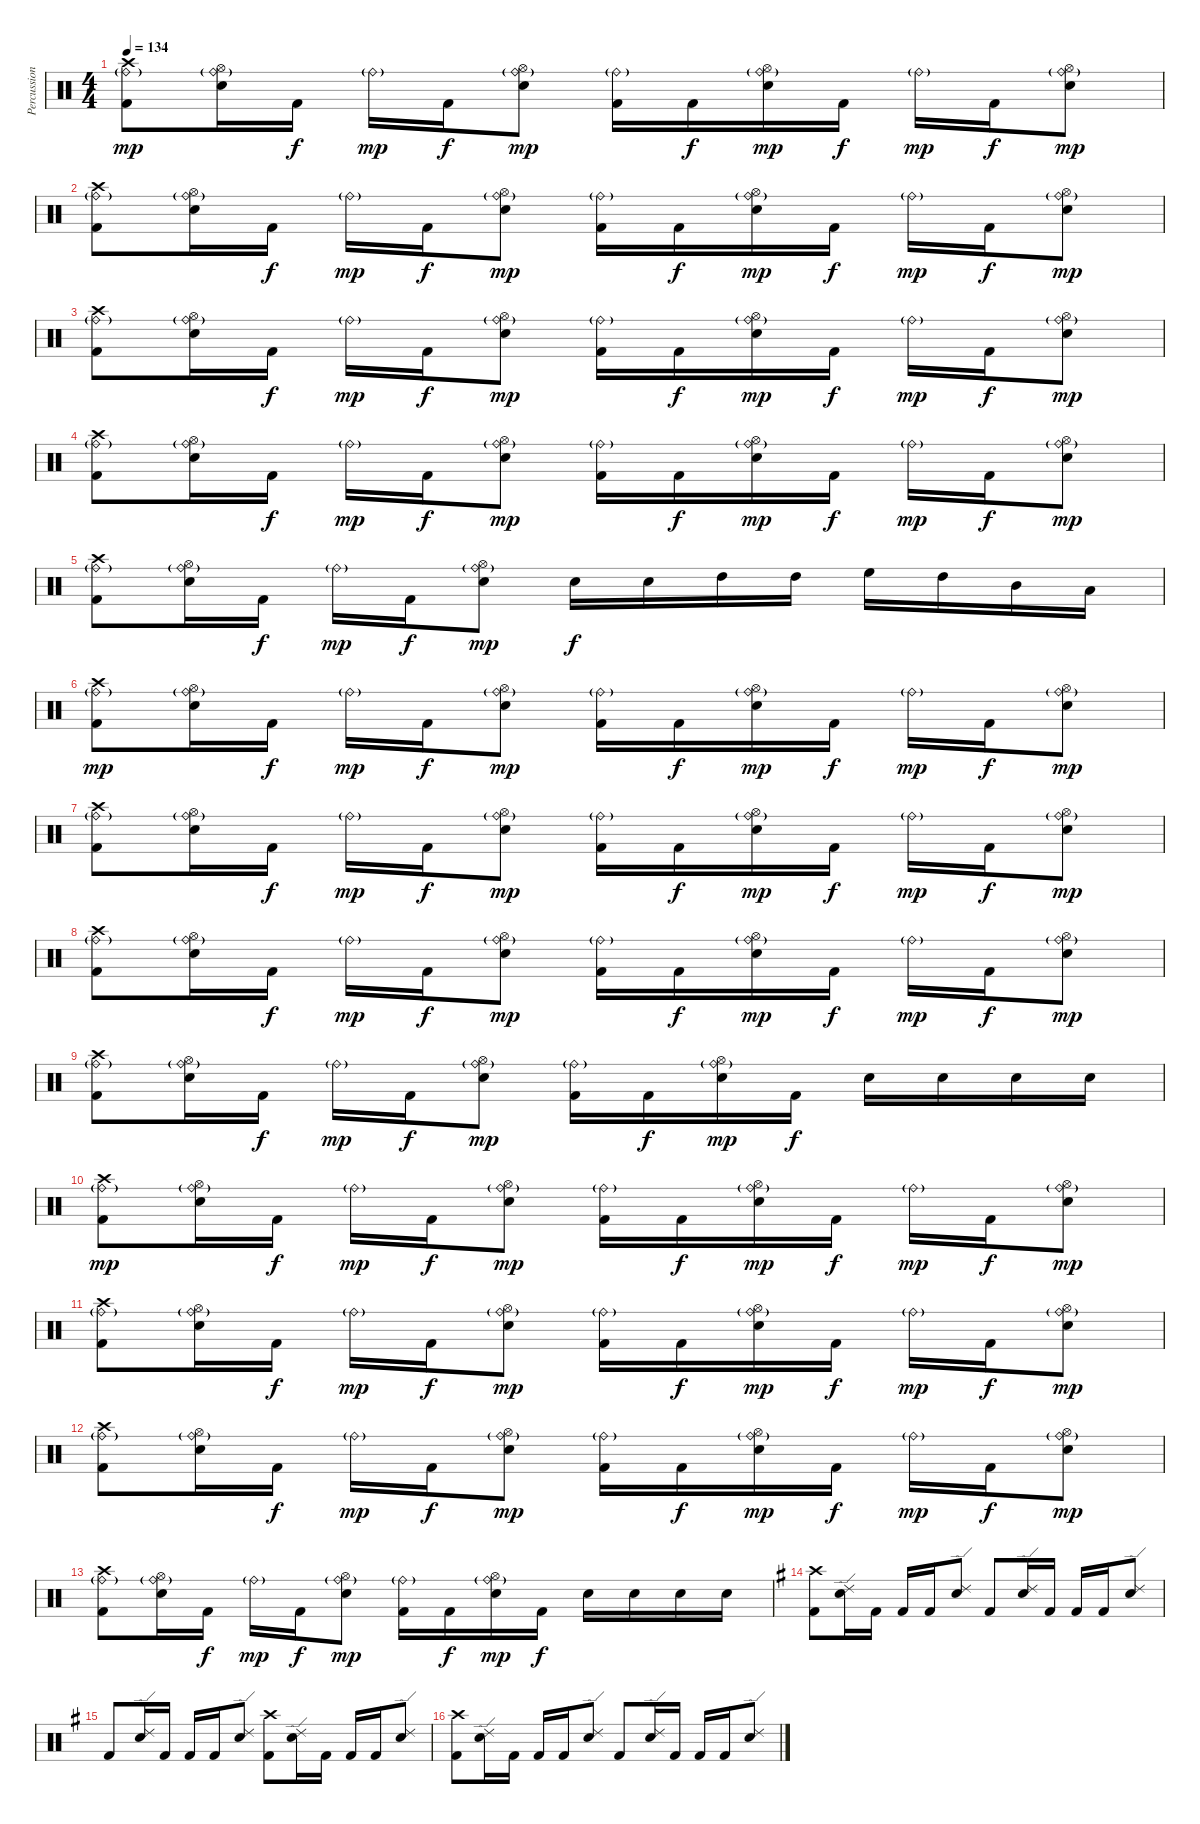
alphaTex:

\track ("Percussion" "Percussion") {instrument percussion}
\staff {score}
\articulation defaults
\ts (4 4)
\tempo 134
\clef neutral
\ks aminor
("Crash high (hit)" "Ride (bell)"{g} "Kick (hit) 2").8{dy mp} ("Hi-Hat (open)" "Ride (bell)"{g} "Electric Snare (hit)").16 "Kick (hit) 2".16{dy f} "Ride (bell)"{g}.16{dy mp} "Kick (hit) 2".16{dy f} ("Hi-Hat (open)" "Ride (bell)"{g} "Electric Snare (hit)").8{dy mp} ("Ride (bell)"{g} "Kick (hit) 2").16 "Kick (hit) 2".16{dy f} ("Hi-Hat (open)" "Ride (bell)"{g} "Electric Snare (hit)").16{dy mp} "Kick (hit) 2".16{dy f} "Ride (bell)"{g}.16{dy mp} "Kick (hit) 2".16{dy f} ("Hi-Hat (open)" "Ride (bell)"{g} "Electric Snare (hit)").8{dy mp} |
("Crash high (hit)" "Ride (bell)"{g} "Kick (hit) 2").8 ("Hi-Hat (open)" "Ride (bell)"{g} "Electric Snare (hit)").16 "Kick (hit) 2".16{dy f} "Ride (bell)"{g}.16{dy mp} "Kick (hit) 2".16{dy f} ("Hi-Hat (open)" "Ride (bell)"{g} "Electric Snare (hit)").8{dy mp} ("Ride (bell)"{g} "Kick (hit) 2").16 "Kick (hit) 2".16{dy f} ("Hi-Hat (open)" "Ride (bell)"{g} "Electric Snare (hit)").16{dy mp} "Kick (hit) 2".16{dy f} "Ride (bell)"{g}.16{dy mp} "Kick (hit) 2".16{dy f} ("Hi-Hat (open)" "Ride (bell)"{g} "Electric Snare (hit)").8{dy mp} |
("Crash high (hit)" "Ride (bell)"{g} "Kick (hit) 2").8 ("Hi-Hat (open)" "Ride (bell)"{g} "Electric Snare (hit)").16 "Kick (hit) 2".16{dy f} "Ride (bell)"{g}.16{dy mp} "Kick (hit) 2".16{dy f} ("Hi-Hat (open)" "Ride (bell)"{g} "Electric Snare (hit)").8{dy mp} ("Ride (bell)"{g} "Kick (hit) 2").16 "Kick (hit) 2".16{dy f} ("Hi-Hat (open)" "Ride (bell)"{g} "Electric Snare (hit)").16{dy mp} "Kick (hit) 2".16{dy f} "Ride (bell)"{g}.16{dy mp} "Kick (hit) 2".16{dy f} ("Hi-Hat (open)" "Ride (bell)"{g} "Electric Snare (hit)").8{dy mp} |
("Crash high (hit)" "Ride (bell)"{g} "Kick (hit) 2").8 ("Hi-Hat (open)" "Ride (bell)"{g} "Electric Snare (hit)").16 "Kick (hit) 2".16{dy f} "Ride (bell)"{g}.16{dy mp} "Kick (hit) 2".16{dy f} ("Hi-Hat (open)" "Ride (bell)"{g} "Electric Snare (hit)").8{dy mp} ("Ride (bell)"{g} "Kick (hit) 2").16 "Kick (hit) 2".16{dy f} ("Hi-Hat (open)" "Ride (bell)"{g} "Electric Snare (hit)").16{dy mp} "Kick (hit) 2".16{dy f} "Ride (bell)"{g}.16{dy mp} "Kick (hit) 2".16{dy f} ("Hi-Hat (open)" "Ride (bell)"{g} "Electric Snare (hit)").8{dy mp} |
("Crash high (hit)" "Ride (bell)"{g} "Kick (hit) 2").8 ("Hi-Hat (open)" "Ride (bell)"{g} "Electric Snare (hit)").16 "Kick (hit) 2".16{dy f} "Ride (bell)"{g}.16{dy mp} "Kick (hit) 2".16{dy f} ("Hi-Hat (open)" "Ride (bell)"{g} "Electric Snare (hit)").8{dy mp} "Electric Snare (hit)".16{dy f} "Electric Snare (hit)".16 "High Tom (hit)".16 "High Tom (hit)".16 "High Floor Tom (hit)".16 "High Tom (hit)".16 "Mid Tom (hit)".16 "Low Tom (hit)".16 |
("Crash high (hit)" "Ride (bell)"{g} "Kick (hit) 2").8{dy mp} ("Hi-Hat (open)" "Ride (bell)"{g} "Electric Snare (hit)").16 "Kick (hit) 2".16{dy f} "Ride (bell)"{g}.16{dy mp} "Kick (hit) 2".16{dy f} ("Hi-Hat (open)" "Ride (bell)"{g} "Electric Snare (hit)").8{dy mp} ("Ride (bell)"{g} "Kick (hit) 2").16 "Kick (hit) 2".16{dy f} ("Hi-Hat (open)" "Ride (bell)"{g} "Electric Snare (hit)").16{dy mp} "Kick (hit) 2".16{dy f} "Ride (bell)"{g}.16{dy mp} "Kick (hit) 2".16{dy f} ("Hi-Hat (open)" "Ride (bell)"{g} "Electric Snare (hit)").8{dy mp} |
("Crash high (hit)" "Ride (bell)"{g} "Kick (hit) 2").8 ("Hi-Hat (open)" "Ride (bell)"{g} "Electric Snare (hit)").16 "Kick (hit) 2".16{dy f} "Ride (bell)"{g}.16{dy mp} "Kick (hit) 2".16{dy f} ("Hi-Hat (open)" "Ride (bell)"{g} "Electric Snare (hit)").8{dy mp} ("Ride (bell)"{g} "Kick (hit) 2").16 "Kick (hit) 2".16{dy f} ("Hi-Hat (open)" "Ride (bell)"{g} "Electric Snare (hit)").16{dy mp} "Kick (hit) 2".16{dy f} "Ride (bell)"{g}.16{dy mp} "Kick (hit) 2".16{dy f} ("Hi-Hat (open)" "Ride (bell)"{g} "Electric Snare (hit)").8{dy mp} |
("Crash high (hit)" "Ride (bell)"{g} "Kick (hit) 2").8 ("Hi-Hat (open)" "Ride (bell)"{g} "Electric Snare (hit)").16 "Kick (hit) 2".16{dy f} "Ride (bell)"{g}.16{dy mp} "Kick (hit) 2".16{dy f} ("Hi-Hat (open)" "Ride (bell)"{g} "Electric Snare (hit)").8{dy mp} ("Ride (bell)"{g} "Kick (hit) 2").16 "Kick (hit) 2".16{dy f} ("Hi-Hat (open)" "Ride (bell)"{g} "Electric Snare (hit)").16{dy mp} "Kick (hit) 2".16{dy f} "Ride (bell)"{g}.16{dy mp} "Kick (hit) 2".16{dy f} ("Hi-Hat (open)" "Ride (bell)"{g} "Electric Snare (hit)").8{dy mp} |
("Crash high (hit)" "Ride (bell)"{g} "Kick (hit) 2").8 ("Hi-Hat (open)" "Ride (bell)"{g} "Electric Snare (hit)").16 "Kick (hit) 2".16{dy f} "Ride (bell)"{g}.16{dy mp} "Kick (hit) 2".16{dy f} ("Hi-Hat (open)" "Ride (bell)"{g} "Electric Snare (hit)").8{dy mp} ("Ride (bell)"{g} "Kick (hit) 2").16 "Kick (hit) 2".16{dy f} ("Hi-Hat (open)" "Ride (bell)"{g} "Electric Snare (hit)").16{dy mp} "Kick (hit) 2".16{dy f} "Electric Snare (hit)".16 "Electric Snare (hit)".16 "Electric Snare (hit)".16 "Electric Snare (hit)".16 |
("Crash high (hit)" "Ride (bell)"{g} "Kick (hit) 2").8{dy mp} ("Hi-Hat (open)" "Ride (bell)"{g} "Electric Snare (hit)").16 "Kick (hit) 2".16{dy f} "Ride (bell)"{g}.16{dy mp} "Kick (hit) 2".16{dy f} ("Hi-Hat (open)" "Ride (bell)"{g} "Electric Snare (hit)").8{dy mp} ("Ride (bell)"{g} "Kick (hit) 2").16 "Kick (hit) 2".16{dy f} ("Hi-Hat (open)" "Ride (bell)"{g} "Electric Snare (hit)").16{dy mp} "Kick (hit) 2".16{dy f} "Ride (bell)"{g}.16{dy mp} "Kick (hit) 2".16{dy f} ("Hi-Hat (open)" "Ride (bell)"{g} "Electric Snare (hit)").8{dy mp} |
("Crash high (hit)" "Ride (bell)"{g} "Kick (hit) 2").8 ("Hi-Hat (open)" "Ride (bell)"{g} "Electric Snare (hit)").16 "Kick (hit) 2".16{dy f} "Ride (bell)"{g}.16{dy mp} "Kick (hit) 2".16{dy f} ("Hi-Hat (open)" "Ride (bell)"{g} "Electric Snare (hit)").8{dy mp} ("Ride (bell)"{g} "Kick (hit) 2").16 "Kick (hit) 2".16{dy f} ("Hi-Hat (open)" "Ride (bell)"{g} "Electric Snare (hit)").16{dy mp} "Kick (hit) 2".16{dy f} "Ride (bell)"{g}.16{dy mp} "Kick (hit) 2".16{dy f} ("Hi-Hat (open)" "Ride (bell)"{g} "Electric Snare (hit)").8{dy mp} |
("Crash high (hit)" "Ride (bell)"{g} "Kick (hit) 2").8 ("Hi-Hat (open)" "Ride (bell)"{g} "Electric Snare (hit)").16 "Kick (hit) 2".16{dy f} "Ride (bell)"{g}.16{dy mp} "Kick (hit) 2".16{dy f} ("Hi-Hat (open)" "Ride (bell)"{g} "Electric Snare (hit)").8{dy mp} ("Ride (bell)"{g} "Kick (hit) 2").16 "Kick (hit) 2".16{dy f} ("Hi-Hat (open)" "Ride (bell)"{g} "Electric Snare (hit)").16{dy mp} "Kick (hit) 2".16{dy f} "Ride (bell)"{g}.16{dy mp} "Kick (hit) 2".16{dy f} ("Hi-Hat (open)" "Ride (bell)"{g} "Electric Snare (hit)").8{dy mp} |
("Crash high (hit)" "Ride (bell)"{g} "Kick (hit) 2").8 ("Hi-Hat (open)" "Ride (bell)"{g} "Electric Snare (hit)").16 "Kick (hit) 2".16{dy f} "Ride (bell)"{g}.16{dy mp} "Kick (hit) 2".16{dy f} ("Hi-Hat (open)" "Ride (bell)"{g} "Electric Snare (hit)").8{dy mp} ("Ride (bell)"{g} "Kick (hit) 2").16 "Kick (hit) 2".16{dy f} ("Hi-Hat (open)" "Ride (bell)"{g} "Electric Snare (hit)").16{dy mp} "Kick (hit) 2".16{dy f} "Electric Snare (hit)".16 "Electric Snare (hit)".16 "Electric Snare (hit)".16 "Electric Snare (hit)".16 |
\ks eminor
("Crash high (hit)" "Kick (hit) 2").8 ("Ride (edge) 2" "Electric Snare (hit)").16 "Kick (hit) 2".16 "Kick (hit) 2".16 "Kick (hit) 2".16 ("Ride (edge) 2" "Electric Snare (hit)").8 "Kick (hit) 2".8 ("Ride (edge) 2" "Electric Snare (hit)").16 "Kick (hit) 2".16 "Kick (hit) 2".16 "Kick (hit) 2".16 ("Ride (edge) 2" "Electric Snare (hit)").8 |
"Kick (hit) 2".8 ("Ride (edge) 2" "Electric Snare (hit)").16 "Kick (hit) 2".16 "Kick (hit) 2".16 "Kick (hit) 2".16 ("Ride (edge) 2" "Electric Snare (hit)").8 ("Crash high (hit)" "Kick (hit) 2").8 ("Ride (edge) 2" "Electric Snare (hit)").16 "Kick (hit) 2".16 "Kick (hit) 2".16 "Kick (hit) 2".16 ("Ride (edge) 2" "Electric Snare (hit)").8 |
("Crash high (hit)" "Kick (hit) 2").8 ("Ride (edge) 2" "Electric Snare (hit)").16 "Kick (hit) 2".16 "Kick (hit) 2".16 "Kick (hit) 2".16 ("Ride (edge) 2" "Electric Snare (hit)").8 "Kick (hit) 2".8 ("Ride (edge) 2" "Electric Snare (hit)").16 "Kick (hit) 2".16 "Kick (hit) 2".16 "Kick (hit) 2".16 ("Ride (edge) 2" "Electric Snare (hit)").8
